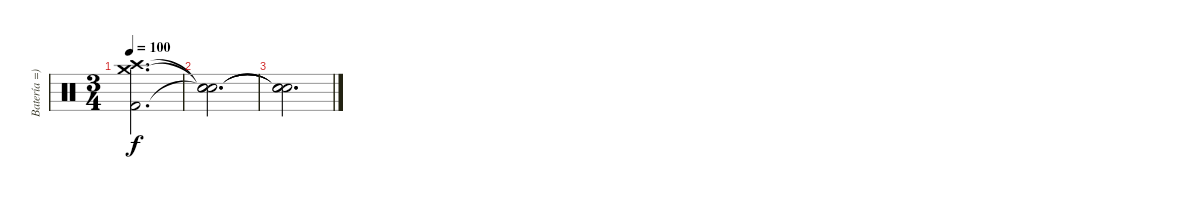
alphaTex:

\track ("Batería =)" "Batería =)") {instrument percussion}
\staff {score}
\articulation defaults
\ts (3 4)
\tempo 100
\clef neutral
\ks c
("Crash medium (hit)" "Crash high (hit)" "Kick (hit) 2").2{d dy f} |
("Snare (hit)"{t} "Snare (hit)"{t} "Snare (hit)"{t}).2{d} |
("Snare (hit)"{t} "Snare (hit)"{t} "Snare (hit)"{t}).2{d}
